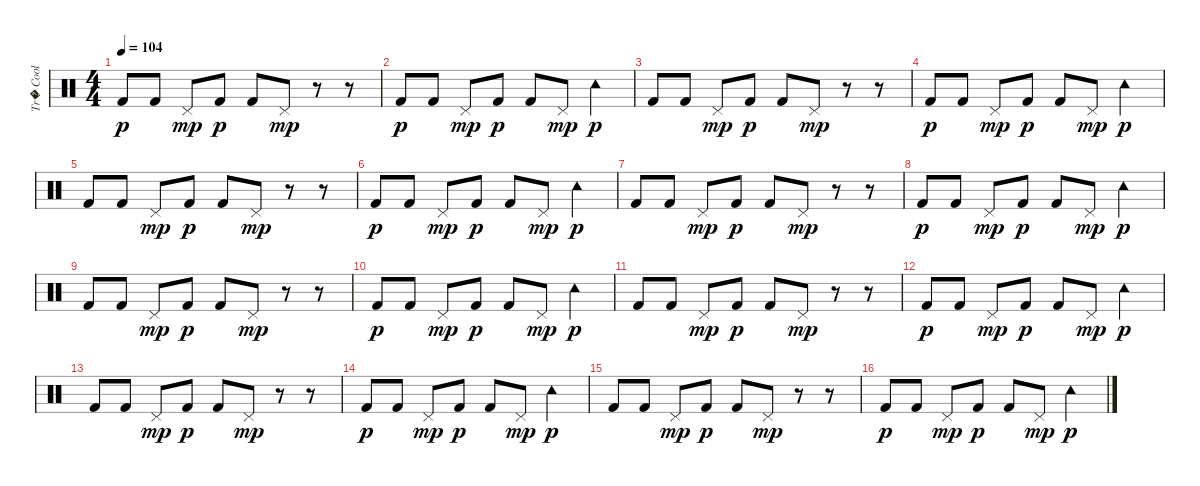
\track ("Tr� Cool" "Tr� Cool") {instrument percussion}
\staff {score}
\articulation defaults
\ts (4 4)
\tempo 104
\clef neutral
\ks c "Kick (hit) 2".8{dy p} "Kick (hit) 2".8 "Pedal Hi-Hat (hit)".8{dy mp} "Kick (hit) 2".8{dy p} "Kick (hit) 2".8 "Pedal Hi-Hat (hit)".8{dy mp}
r.8 r.8 |
"Kick (hit) 2".8{dy p} "Kick (hit) 2".8 "Pedal Hi-Hat (hit)".8{dy mp} "Kick (hit) 2".8{dy p} "Kick (hit) 2".8 "Pedal Hi-Hat (hit)".8{dy mp} "Tambourine (hit)".4{dy p} |
"Kick (hit) 2".8 "Kick (hit) 2".8 "Pedal Hi-Hat (hit)".8{dy mp} "Kick (hit) 2".8{dy p} "Kick (hit) 2".8 "Pedal Hi-Hat (hit)".8{dy mp} r.8 r.8 |
"Kick (hit) 2".8{dy p} "Kick (hit) 2".8 "Pedal Hi-Hat (hit)".8{dy mp} "Kick (hit) 2".8{dy p} "Kick (hit) 2".8 "Pedal Hi-Hat (hit)".8{dy mp} "Tambourine (hit)".4{dy p} |
"Kick (hit) 2".8 "Kick (hit) 2".8 "Pedal Hi-Hat (hit)".8{dy mp} "Kick (hit) 2".8{dy p} "Kick (hit) 2".8 "Pedal Hi-Hat (hit)".8{dy mp} r.8 r.8 |
"Kick (hit) 2".8{dy p} "Kick (hit) 2".8 "Pedal Hi-Hat (hit)".8{dy mp} "Kick (hit) 2".8{dy p} "Kick (hit) 2".8 "Pedal Hi-Hat (hit)".8{dy mp} "Tambourine (hit)".4{dy p} |
"Kick (hit) 2".8 "Kick (hit) 2".8 "Pedal Hi-Hat (hit)".8{dy mp} "Kick (hit) 2".8{dy p} "Kick (hit) 2".8 "Pedal Hi-Hat (hit)".8{dy mp} r.8 r.8 |
"Kick (hit) 2".8{dy p} "Kick (hit) 2".8 "Pedal Hi-Hat (hit)".8{dy mp} "Kick (hit) 2".8{dy p} "Kick (hit) 2".8 "Pedal Hi-Hat (hit)".8{dy mp} "Tambourine (hit)".4{dy p} |
"Kick (hit) 2".8 "Kick (hit) 2".8 "Pedal Hi-Hat (hit)".8{dy mp} "Kick (hit) 2".8{dy p} "Kick (hit) 2".8 "Pedal Hi-Hat (hit)".8{dy mp} r.8 r.8 |
"Kick (hit) 2".8{dy p} "Kick (hit) 2".8 "Pedal Hi-Hat (hit)".8{dy mp} "Kick (hit) 2".8{dy p} "Kick (hit) 2".8 "Pedal Hi-Hat (hit)".8{dy mp} "Tambourine (hit)".4{dy p} |
"Kick (hit) 2".8 "Kick (hit) 2".8 "Pedal Hi-Hat (hit)".8{dy mp} "Kick (hit) 2".8{dy p} "Kick (hit) 2".8 "Pedal Hi-Hat (hit)".8{dy mp} r.8 r.8 |
"Kick (hit) 2".8{dy p} "Kick (hit) 2".8 "Pedal Hi-Hat (hit)".8{dy mp} "Kick (hit) 2".8{dy p} "Kick (hit) 2".8 "Pedal Hi-Hat (hit)".8{dy mp} "Tambourine (hit)".4{dy p} |
"Kick (hit) 2".8 "Kick (hit) 2".8 "Pedal Hi-Hat (hit)".8{dy mp} "Kick (hit) 2".8{dy p} "Kick (hit) 2".8 "Pedal Hi-Hat (hit)".8{dy mp} r.8 r.8 |
"Kick (hit) 2".8{dy p} "Kick (hit) 2".8 "Pedal Hi-Hat (hit)".8{dy mp} "Kick (hit) 2".8{dy p} "Kick (hit) 2".8 "Pedal Hi-Hat (hit)".8{dy mp} "Tambourine (hit)".4{dy p} |
"Kick (hit) 2".8 "Kick (hit) 2".8 "Pedal Hi-Hat (hit)".8{dy mp} "Kick (hit) 2".8{dy p} "Kick (hit) 2".8 "Pedal Hi-Hat (hit)".8{dy mp} r.8 r.8 |
"Kick (hit) 2".8{dy p} "Kick (hit) 2".8 "Pedal Hi-Hat (hit)".8{dy mp} "Kick (hit) 2".8{dy p} "Kick (hit) 2".8 "Pedal Hi-Hat (hit)".8{dy mp} "Tambourine (hit)".4{dy p}
